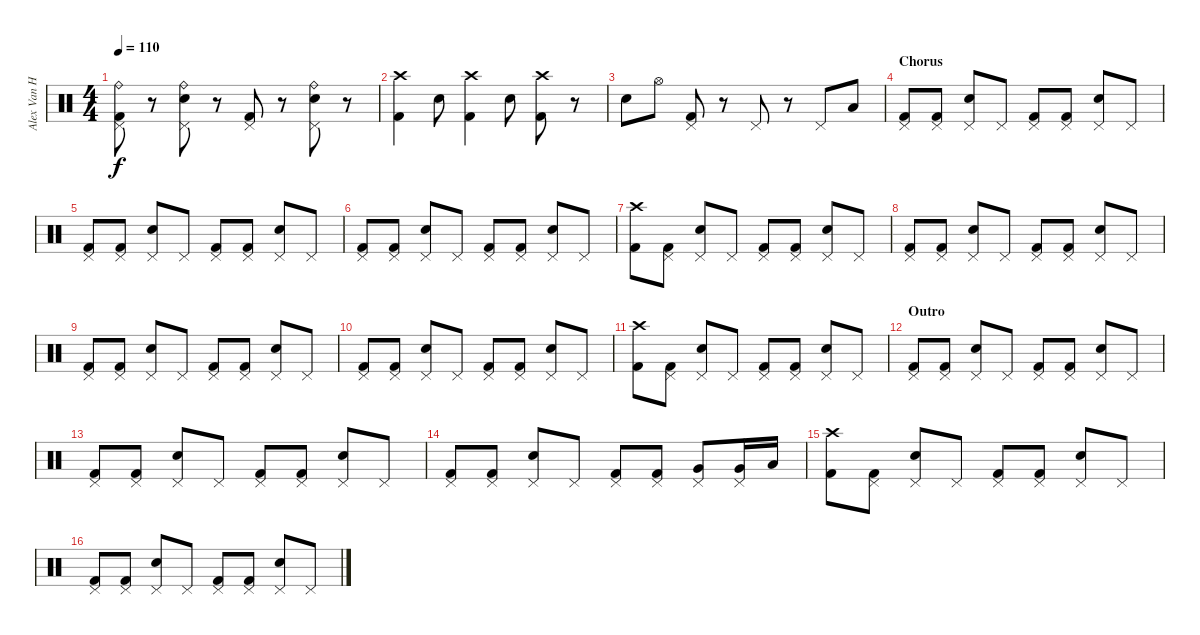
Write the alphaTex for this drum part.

\track ("Alex Van Halen" "Alex Van H") {instrument percussion}
\staff {score}
\articulation defaults
\ts (4 4)
\tempo 110
\clef neutral
\ks c
("Ride (bell)" "Pedal Hi-Hat (hit)" "Kick (hit) 2").8{dy f} r.8 ("Ride (bell)" "Pedal Hi-Hat (hit)" "Snare (hit) 2").8 r.8 ("Pedal Hi-Hat (hit)" "Kick (hit) 2").8 r.8 ("Ride (bell)" "Pedal Hi-Hat (hit)" "Snare (hit) 2").8 r.8 |
("Crash high (hit)" "Kick (hit) 2").4 "Snare (hit) 2".8 ("Crash high (hit)" "Kick (hit) 2").4 "Snare (hit) 2".8 ("Crash high (hit)" "Kick (hit) 2").8 r.8 |
"Snare (hit) 2".8 "Hi-Hat (open)".8 ("Pedal Hi-Hat (hit)" "Kick (hit) 2").8 r.8 "Pedal Hi-Hat (hit)".8 r.8 "Pedal Hi-Hat (hit)".8 "Low Floor Tom (hit)".8 |
\section ("" "Chorus")
("Pedal Hi-Hat (hit)" "Kick (hit) 2").8 ("Pedal Hi-Hat (hit)" "Kick (hit) 2").8 ("Pedal Hi-Hat (hit)" "Snare (hit) 2").8 "Pedal Hi-Hat (hit)".8 ("Pedal Hi-Hat (hit)" "Kick (hit) 2").8 ("Pedal Hi-Hat (hit)" "Kick (hit) 2").8 ("Pedal Hi-Hat (hit)" "Snare (hit) 2").8 "Pedal Hi-Hat (hit)".8 |
("Pedal Hi-Hat (hit)" "Kick (hit) 2").8 ("Pedal Hi-Hat (hit)" "Kick (hit) 2").8 ("Pedal Hi-Hat (hit)" "Snare (hit) 2").8 "Pedal Hi-Hat (hit)".8 ("Pedal Hi-Hat (hit)" "Kick (hit) 2").8 ("Pedal Hi-Hat (hit)" "Kick (hit) 2").8 ("Pedal Hi-Hat (hit)" "Snare (hit) 2").8 "Pedal Hi-Hat (hit)".8 |
("Pedal Hi-Hat (hit)" "Kick (hit) 2").8 ("Pedal Hi-Hat (hit)" "Kick (hit) 2").8 ("Pedal Hi-Hat (hit)" "Snare (hit) 2").8 "Pedal Hi-Hat (hit)".8 ("Pedal Hi-Hat (hit)" "Kick (hit) 2").8 ("Pedal Hi-Hat (hit)" "Kick (hit) 2").8 ("Pedal Hi-Hat (hit)" "Snare (hit) 2").8 "Pedal Hi-Hat (hit)".8 |
("Crash high (hit)" "Kick (hit) 2").8 ("Pedal Hi-Hat (hit)" "Kick (hit) 2").8 ("Pedal Hi-Hat (hit)" "Snare (hit) 2").8 "Pedal Hi-Hat (hit)".8 ("Pedal Hi-Hat (hit)" "Kick (hit) 2").8 ("Pedal Hi-Hat (hit)" "Kick (hit) 2").8 ("Pedal Hi-Hat (hit)" "Snare (hit) 2").8 "Pedal Hi-Hat (hit)".8 |
("Pedal Hi-Hat (hit)" "Kick (hit) 2").8 ("Pedal Hi-Hat (hit)" "Kick (hit) 2").8 ("Pedal Hi-Hat (hit)" "Snare (hit) 2").8 "Pedal Hi-Hat (hit)".8 ("Pedal Hi-Hat (hit)" "Kick (hit) 2").8 ("Pedal Hi-Hat (hit)" "Kick (hit) 2").8 ("Pedal Hi-Hat (hit)" "Snare (hit) 2").8 "Pedal Hi-Hat (hit)".8 |
("Pedal Hi-Hat (hit)" "Kick (hit) 2").8 ("Pedal Hi-Hat (hit)" "Kick (hit) 2").8 ("Pedal Hi-Hat (hit)" "Snare (hit) 2").8 "Pedal Hi-Hat (hit)".8 ("Pedal Hi-Hat (hit)" "Kick (hit) 2").8 ("Pedal Hi-Hat (hit)" "Kick (hit) 2").8 ("Pedal Hi-Hat (hit)" "Snare (hit) 2").8 "Pedal Hi-Hat (hit)".8 |
("Pedal Hi-Hat (hit)" "Kick (hit) 2").8 ("Pedal Hi-Hat (hit)" "Kick (hit) 2").8 ("Pedal Hi-Hat (hit)" "Snare (hit) 2").8 "Pedal Hi-Hat (hit)".8 ("Pedal Hi-Hat (hit)" "Kick (hit) 2").8 ("Pedal Hi-Hat (hit)" "Kick (hit) 2").8 ("Pedal Hi-Hat (hit)" "Snare (hit) 2").8 "Pedal Hi-Hat (hit)".8 |
("Crash high (hit)" "Kick (hit) 2").8 ("Pedal Hi-Hat (hit)" "Kick (hit) 2").8 ("Pedal Hi-Hat (hit)" "Snare (hit) 2").8 "Pedal Hi-Hat (hit)".8 ("Pedal Hi-Hat (hit)" "Kick (hit) 2").8 ("Pedal Hi-Hat (hit)" "Kick (hit) 2").8 ("Pedal Hi-Hat (hit)" "Snare (hit) 2").8 "Pedal Hi-Hat (hit)".8 |
\section ("" "Outro")
("Pedal Hi-Hat (hit)" "Kick (hit) 2").8 ("Pedal Hi-Hat (hit)" "Kick (hit) 2").8 ("Pedal Hi-Hat (hit)" "Snare (hit) 2").8 "Pedal Hi-Hat (hit)".8 ("Pedal Hi-Hat (hit)" "Kick (hit) 2").8 ("Pedal Hi-Hat (hit)" "Kick (hit) 2").8 ("Pedal Hi-Hat (hit)" "Snare (hit) 2").8 "Pedal Hi-Hat (hit)".8 |
("Pedal Hi-Hat (hit)" "Kick (hit) 2").8 ("Pedal Hi-Hat (hit)" "Kick (hit) 2").8 ("Pedal Hi-Hat (hit)" "Snare (hit) 2").8 "Pedal Hi-Hat (hit)".8 ("Pedal Hi-Hat (hit)" "Kick (hit) 2").8 ("Pedal Hi-Hat (hit)" "Kick (hit) 2").8 ("Pedal Hi-Hat (hit)" "Snare (hit) 2").8 "Pedal Hi-Hat (hit)".8 |
("Pedal Hi-Hat (hit)" "Kick (hit) 2").8 ("Pedal Hi-Hat (hit)" "Kick (hit) 2").8 ("Pedal Hi-Hat (hit)" "Snare (hit) 2").8 "Pedal Hi-Hat (hit)".8 ("Pedal Hi-Hat (hit)" "Kick (hit) 2").8 ("Pedal Hi-Hat (hit)" "Kick (hit) 2").8 ("Pedal Hi-Hat (hit)" "Very Low Tom (hit)").8 ("Pedal Hi-Hat (hit)" "Very Low Tom (hit)").16 "Low Floor Tom (hit)".16 |
("Crash high (hit)" "Kick (hit) 2").8 ("Pedal Hi-Hat (hit)" "Kick (hit) 2").8 ("Pedal Hi-Hat (hit)" "Snare (hit) 2").8 "Pedal Hi-Hat (hit)".8 ("Pedal Hi-Hat (hit)" "Kick (hit) 2").8 ("Pedal Hi-Hat (hit)" "Kick (hit) 2").8 ("Pedal Hi-Hat (hit)" "Snare (hit) 2").8 "Pedal Hi-Hat (hit)".8 |
("Pedal Hi-Hat (hit)" "Kick (hit) 2").8 ("Pedal Hi-Hat (hit)" "Kick (hit) 2").8 ("Pedal Hi-Hat (hit)" "Snare (hit) 2").8 "Pedal Hi-Hat (hit)".8 ("Pedal Hi-Hat (hit)" "Kick (hit) 2").8 ("Pedal Hi-Hat (hit)" "Kick (hit) 2").8 ("Pedal Hi-Hat (hit)" "Snare (hit) 2").8 "Pedal Hi-Hat (hit)".8
